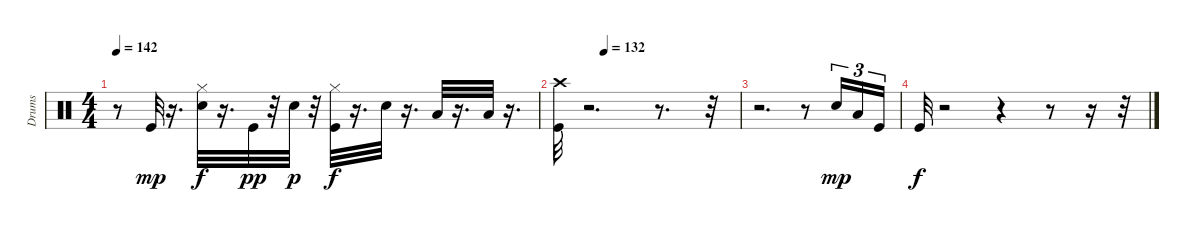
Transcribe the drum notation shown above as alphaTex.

\track ("Drums" "Drums") {instrument percussion}
\staff {score}
\articulation defaults
\ts (4 4)
\tempo 142
\clef neutral
\ks c
r.8{dy f} "Kick (hit)".32{dy mp} r.16{d} ("Hi-Hat (closed)" "Snare (hit) 2").32{dy f} r.16{d} "Kick (hit)".32{dy pp} r.32 "Snare (hit) 2".32{dy p} r.32 ("Hi-Hat (closed)" "Kick (hit)").32{dy f} r.16{d} "Electric Snare (hit)".32 r.16{d} "Low Tom (hit)".32 r.16{d} "Low Floor Tom (hit)".32 r.16{d} |
\tempo (132 0.25)
("Crash high (hit)" "Kick (hit)").32 r.2{d} r.8{d} r.32 |
r.2{d} r.8 "Snare (hit) 2".16{tu (3 2) dy mp} "Low Tom (hit)".16{tu (3 2)} "Kick (hit)".16{tu (3 2)} |
"Kick (hit)".32{dy f} r.2 r.4 r.8 r.16 r.32
